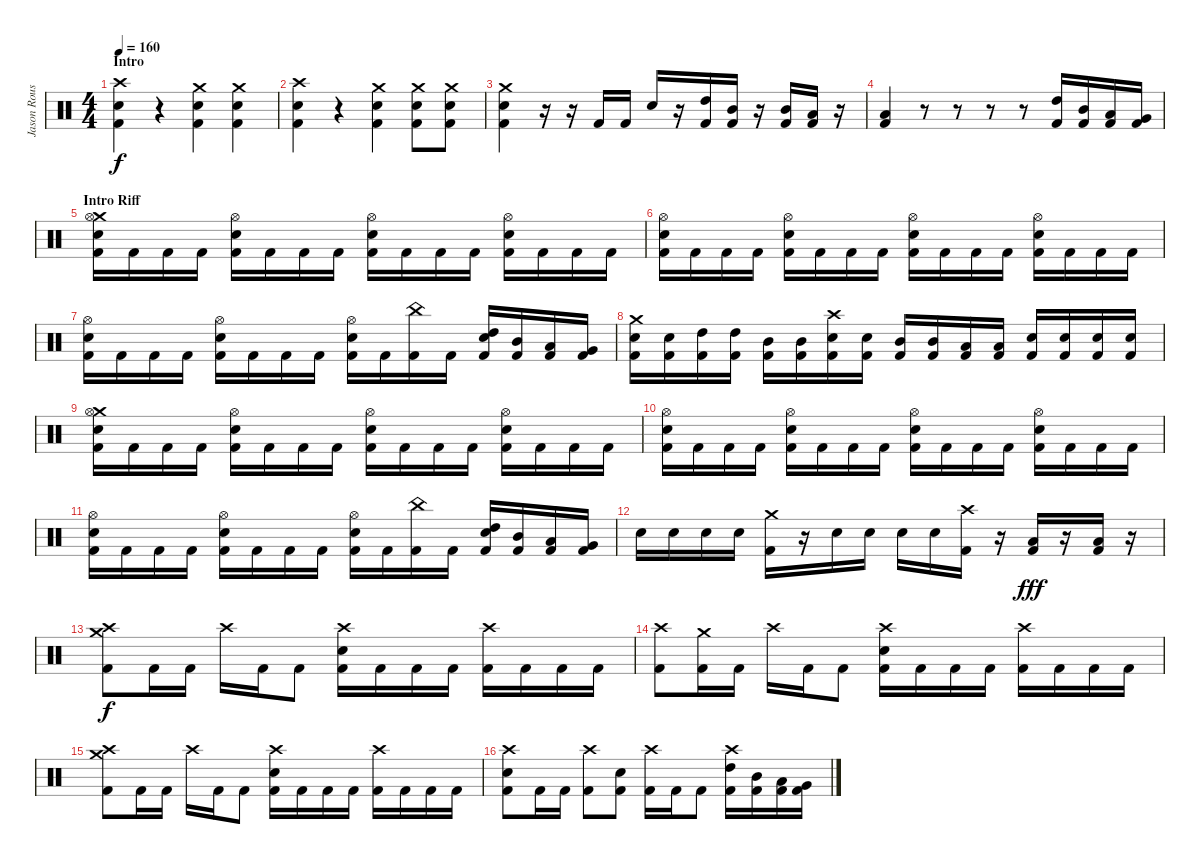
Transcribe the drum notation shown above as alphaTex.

\track ("Jason Rousseau" "Jason Rous") {instrument percussion}
\staff {score}
\articulation defaults
\ts (4 4)
\section ("" "Intro")
\tempo 160
\clef neutral
\ks c
("Crash high (hit)" "Electric Snare (hit)" "Kick (hit) 2").4{dy f} r.4 ("Crash medium (hit)" "Electric Snare (hit)" "Kick (hit) 2").4 ("Crash medium (hit)" "Electric Snare (hit)" "Kick (hit) 2").4 |
("Crash high (hit)" "Electric Snare (hit)" "Kick (hit) 2").4 r.4 ("Crash medium (hit)" "Electric Snare (hit)" "Kick (hit) 2").4 ("Crash medium (hit)" "Electric Snare (hit)" "Kick (hit) 2").8 ("Crash medium (hit)" "Electric Snare (hit)" "Kick (hit) 2").8 |
("Crash medium (hit)" "Electric Snare (hit)" "Kick (hit) 2").4 r.16 r.16 "Kick (hit) 2".16 "Kick (hit) 2".16 "Electric Snare (hit)".16 r.16 ("High Tom (hit)" "Kick (hit) 2").16 ("Mid Tom (hit)" "Kick (hit) 2").16 r.16 ("Mid Tom (hit)" "Kick (hit) 2").16 ("Low Tom (hit)" "Kick (hit) 2").16 r.16 |
("Low Floor Tom (hit)" "Kick (hit) 2").4 r.8 r.8 r.8 r.8 ("High Tom (hit)" "Kick (hit) 2").16 ("Mid Tom (hit)" "Kick (hit) 2").16 ("Low Tom (hit)" "Kick (hit) 2").16 ("Very Low Tom (hit)" "Kick (hit) 2").16 |
\section ("" "Intro Riff")
("Crash medium (hit)" "Hi-Hat (open)" "Electric Snare (hit)" "Kick (hit) 2").16 "Kick (hit) 2".16 "Kick (hit) 2".16 "Kick (hit) 2".16 ("Hi-Hat (open)" "Electric Snare (hit)" "Kick (hit) 2").16 "Kick (hit) 2".16 "Kick (hit) 2".16 "Kick (hit) 2".16 ("Hi-Hat (open)" "Electric Snare (hit)" "Kick (hit) 2").16 "Kick (hit) 2".16 "Kick (hit) 2".16 "Kick (hit) 2".16 ("Hi-Hat (open)" "Electric Snare (hit)" "Kick (hit) 2").16 "Kick (hit) 2".16 "Kick (hit) 2".16 "Kick (hit) 2".16 |
("Hi-Hat (open)" "Electric Snare (hit)" "Kick (hit) 2").16 "Kick (hit) 2".16 "Kick (hit) 2".16 "Kick (hit) 2".16 ("Hi-Hat (open)" "Electric Snare (hit)" "Kick (hit) 2").16 "Kick (hit) 2".16 "Kick (hit) 2".16 "Kick (hit) 2".16 ("Hi-Hat (open)" "Electric Snare (hit)" "Kick (hit) 2").16 "Kick (hit) 2".16 "Kick (hit) 2".16 "Kick (hit) 2".16 ("Hi-Hat (open)" "Electric Snare (hit)" "Kick (hit) 2").16 "Kick (hit) 2".16 "Kick (hit) 2".16 "Kick (hit) 2".16 |
("Hi-Hat (open)" "Electric Snare (hit)" "Kick (hit) 2").16 "Kick (hit) 2".16 "Kick (hit) 2".16 "Kick (hit) 2".16 ("Hi-Hat (open)" "Electric Snare (hit)" "Kick (hit) 2").16 "Kick (hit) 2".16 "Kick (hit) 2".16 "Kick (hit) 2".16 ("Hi-Hat (open)" "Electric Snare (hit)" "Kick (hit) 2").16 "Kick (hit) 2".16 ("China (hit)" "Kick (hit) 2").16 "Kick (hit) 2".16 ("High Tom (hit)" "Electric Snare (hit)" "Kick (hit) 2").16 ("Mid Tom (hit)" "Kick (hit) 2").16 ("Low Tom (hit)" "Kick (hit) 2").16 ("Very Low Tom (hit)" "Kick (hit) 2").16 |
("Crash medium (hit)" "Electric Snare (hit)" "Kick (hit) 2").16 ("Electric Snare (hit)" "Kick (hit) 2").16 ("High Tom (hit)" "Kick (hit) 2").16 ("High Tom (hit)" "Kick (hit) 2").16 ("Mid Tom (hit)" "Kick (hit) 2").16 ("Mid Tom (hit)" "Kick (hit) 2").16 ("Crash high (hit)" "Electric Snare (hit)" "Kick (hit) 2").16 ("Electric Snare (hit)" "Kick (hit) 2").16 ("Mid Tom (hit)" "Kick (hit) 2").16 ("Mid Tom (hit)" "Kick (hit) 2").16 ("Low Tom (hit)" "Kick (hit) 2").16 ("Low Tom (hit)" "Kick (hit) 2").16 ("Electric Snare (hit)" "Kick (hit) 2").16 ("Electric Snare (hit)" "Kick (hit) 2").16 ("Electric Snare (hit)" "Kick (hit) 2").16 ("Electric Snare (hit)" "Kick (hit) 2").16 |
("Crash medium (hit)" "Hi-Hat (open)" "Electric Snare (hit)" "Kick (hit) 2").16 "Kick (hit) 2".16 "Kick (hit) 2".16 "Kick (hit) 2".16 ("Hi-Hat (open)" "Electric Snare (hit)" "Kick (hit) 2").16 "Kick (hit) 2".16 "Kick (hit) 2".16 "Kick (hit) 2".16 ("Hi-Hat (open)" "Electric Snare (hit)" "Kick (hit) 2").16 "Kick (hit) 2".16 "Kick (hit) 2".16 "Kick (hit) 2".16 ("Hi-Hat (open)" "Electric Snare (hit)" "Kick (hit) 2").16 "Kick (hit) 2".16 "Kick (hit) 2".16 "Kick (hit) 2".16 |
("Hi-Hat (open)" "Electric Snare (hit)" "Kick (hit) 2").16 "Kick (hit) 2".16 "Kick (hit) 2".16 "Kick (hit) 2".16 ("Hi-Hat (open)" "Electric Snare (hit)" "Kick (hit) 2").16 "Kick (hit) 2".16 "Kick (hit) 2".16 "Kick (hit) 2".16 ("Hi-Hat (open)" "Electric Snare (hit)" "Kick (hit) 2").16 "Kick (hit) 2".16 "Kick (hit) 2".16 "Kick (hit) 2".16 ("Hi-Hat (open)" "Electric Snare (hit)" "Kick (hit) 2").16 "Kick (hit) 2".16 "Kick (hit) 2".16 "Kick (hit) 2".16 |
("Hi-Hat (open)" "Electric Snare (hit)" "Kick (hit) 2").16 "Kick (hit) 2".16 "Kick (hit) 2".16 "Kick (hit) 2".16 ("Hi-Hat (open)" "Electric Snare (hit)" "Kick (hit) 2").16 "Kick (hit) 2".16 "Kick (hit) 2".16 "Kick (hit) 2".16 ("Hi-Hat (open)" "Electric Snare (hit)" "Kick (hit) 2").16 "Kick (hit) 2".16 ("China (hit)" "Kick (hit) 2").16 "Kick (hit) 2".16 ("High Tom (hit)" "Electric Snare (hit)" "Kick (hit) 2").16 ("Mid Tom (hit)" "Kick (hit) 2").16 ("Low Tom (hit)" "Kick (hit) 2").16 ("Very Low Tom (hit)" "Kick (hit) 2").16 |
"Electric Snare (hit)".16 "Electric Snare (hit)".16 "Electric Snare (hit)".16 "Electric Snare (hit)".16 ("Crash medium (hit)" "Kick (hit) 2").16 r.16 "Electric Snare (hit)".16 "Electric Snare (hit)".16 "Electric Snare (hit)".16 "Electric Snare (hit)".16 ("Crash high (hit)" "Kick (hit) 2").16 r.16 ("Low Floor Tom (hit)" "Kick (hit) 2").16{dy fff} r.16 ("Low Floor Tom (hit)" "Kick (hit) 2").16 r.16 |
("Crash medium (hit)" "Crash high (hit)" "Kick (hit) 2").8{dy f} "Kick (hit) 2".16 "Kick (hit) 2".16 "Crash high (hit)".16 "Kick (hit) 2".16 "Kick (hit) 2".8 ("Crash high (hit)" "Electric Snare (hit)" "Kick (hit) 2").16 "Kick (hit) 2".16 "Kick (hit) 2".16 "Kick (hit) 2".16 ("Crash high (hit)" "Kick (hit) 2").16 "Kick (hit) 2".16 "Kick (hit) 2".16 "Kick (hit) 2".16 |
("Crash high (hit)" "Kick (hit) 2").8 ("Crash medium (hit)" "Kick (hit) 2").16 "Kick (hit) 2".16 "Crash high (hit)".16 "Kick (hit) 2".16 "Kick (hit) 2".8 ("Crash high (hit)" "Electric Snare (hit)" "Kick (hit) 2").16 "Kick (hit) 2".16 "Kick (hit) 2".16 "Kick (hit) 2".16 ("Crash high (hit)" "Kick (hit) 2").16 "Kick (hit) 2".16 "Kick (hit) 2".16 "Kick (hit) 2".16 |
("Crash medium (hit)" "Crash high (hit)" "Kick (hit) 2").8 "Kick (hit) 2".16 "Kick (hit) 2".16 "Crash high (hit)".16 "Kick (hit) 2".16 "Kick (hit) 2".8 ("Crash high (hit)" "Electric Snare (hit)" "Kick (hit) 2").16 "Kick (hit) 2".16 "Kick (hit) 2".16 "Kick (hit) 2".16 ("Crash high (hit)" "Kick (hit) 2").16 "Kick (hit) 2".16 "Kick (hit) 2".16 "Kick (hit) 2".16 |
("Crash high (hit)" "Electric Snare (hit)" "Kick (hit) 2").8 "Kick (hit) 2".16 "Kick (hit) 2".16 ("Crash high (hit)" "Kick (hit) 2").8 ("Electric Snare (hit)" "Kick (hit) 2").8 ("Crash high (hit)" "Kick (hit) 2").16 "Kick (hit) 2".16 "Kick (hit) 2".8 ("Crash high (hit)" "High Tom (hit)" "Kick (hit) 2").16 ("Mid Tom (hit)" "Kick (hit) 2").16 ("Low Tom (hit)" "Kick (hit) 2").16 ("Very Low Tom (hit)" "Kick (hit) 2").16
